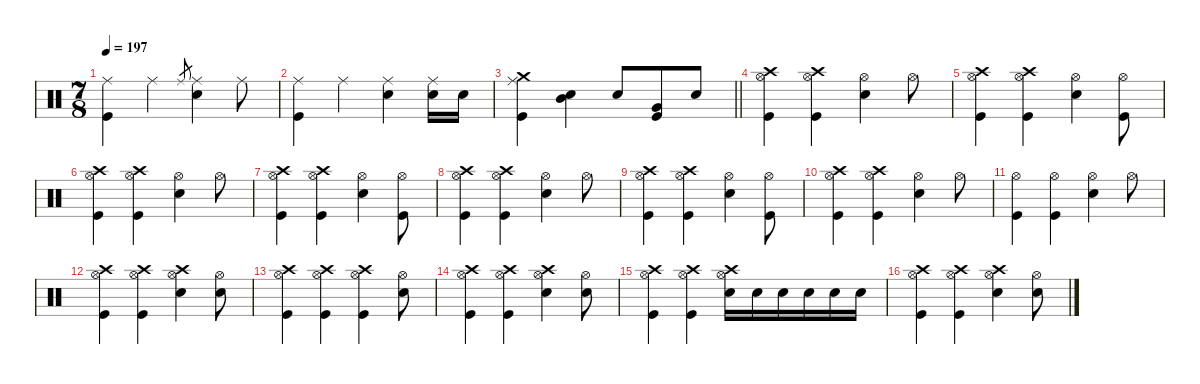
\defaultSystemsLayout 4
\hideDynamics
\bracketExtendMode nobrackets
\singleTrackTrackNamePolicy hidden
\multiTrackTrackNamePolicy hidden
\firstSystemTrackNameMode fullname
\firstSystemTrackNameOrientation horizontal
\otherSystemsTrackNameOrientation horizontal
\track ("Drums" "drm.") {defaultSystemsLayout 4 instrument percussion}
\staff {score}
\articulation defaults
\ts (7 8)
\tempo 197
\clef neutral
\ks c
("Ride (middle)" "Kick (hit)").4{dy f beam Down} "Ride (middle)".4{beam Down} "Ride (middle)".8{gr dy mf beam Up} ("Ride (middle)" "Snare (hit) 2").4{dy f beam Down} "Ride (middle)".8{beam Down} |
("Ride (middle)" "Kick (hit)").4{beam Down} "Ride (middle)".4{beam Down} ("Ride (middle)" "Snare (hit) 2").4{beam Down} ("Ride (middle)" "Snare (hit) 2").16{beam Down} "Snare (hit) 2".16{dy mf beam Down} |
\barLineRight lightlight
("Crash medium (hit)" "Ride (middle)" "Kick (hit)").4{dy mp beam Down} ("Snare (hit) 2" "Mid Tom (hit)").4{dy f beam Down} "Snare (hit) 2".8{beam Up} ("Kick (hit)" "Very Low Tom (hit)").8{beam Up} "Snare (hit) 2".8{beam Up} |
("Hi-Hat (open)" "Crash high (hit)" "Kick (hit)").4{beam Down} ("Hi-Hat (open)" "Crash high (hit)" "Kick (hit)").4{beam Down} ("Hi-Hat (open)" "Snare (hit) 2").4{beam Down} "Hi-Hat (open)".8{beam Down} |
("Hi-Hat (open)" "Crash high (hit)" "Kick (hit)").4{beam Down} ("Hi-Hat (open)" "Crash high (hit)" "Kick (hit)").4{beam Down} ("Hi-Hat (open)" "Snare (hit) 2").4{beam Down} ("Hi-Hat (open)" "Kick (hit)").8{beam Down} |
("Hi-Hat (open)" "Crash high (hit)" "Kick (hit)").4{beam Down} ("Hi-Hat (open)" "Crash high (hit)" "Kick (hit)").4{beam Down} ("Hi-Hat (open)" "Snare (hit) 2").4{beam Down} "Hi-Hat (open)".8{beam Down} |
("Hi-Hat (open)" "Crash high (hit)" "Kick (hit)").4{beam Down} ("Hi-Hat (open)" "Crash high (hit)" "Kick (hit)").4{beam Down} ("Hi-Hat (open)" "Snare (hit) 2").4{beam Down} ("Hi-Hat (open)" "Kick (hit)").8{beam Down} |
("Hi-Hat (open)" "Crash high (hit)" "Kick (hit)").4{beam Down} ("Hi-Hat (open)" "Crash high (hit)" "Kick (hit)").4{beam Down} ("Hi-Hat (open)" "Snare (hit) 2").4{beam Down} "Hi-Hat (open)".8{beam Down} |
("Hi-Hat (open)" "Crash high (hit)" "Kick (hit)").4{beam Down} ("Hi-Hat (open)" "Crash high (hit)" "Kick (hit)").4{beam Down} ("Hi-Hat (open)" "Snare (hit) 2").4{beam Down} ("Hi-Hat (open)" "Kick (hit)").8{beam Down} |
("Hi-Hat (open)" "Crash high (hit)" "Kick (hit)").4{beam Down} ("Hi-Hat (open)" "Crash high (hit)" "Kick (hit)").4{beam Down} ("Hi-Hat (open)" "Snare (hit) 2").4{beam Down} "Hi-Hat (open)".8{beam Down} |
("Hi-Hat (open)" "Kick (hit)").4{beam Down} ("Hi-Hat (open)" "Kick (hit)").4{beam Down} ("Hi-Hat (open)" "Snare (hit) 2").4{beam Down} "Hi-Hat (open)".8{beam Down} |
("Crash high (hit)" "Hi-Hat (open)" "Kick (hit)").4{beam Down} ("Crash high (hit)" "Hi-Hat (open)" "Kick (hit)").4{beam Down} ("Crash high (hit)" "Hi-Hat (open)" "Snare (hit) 2").4{beam Down} ("Hi-Hat (open)" "Snare (hit) 2").8{beam Down} |
("Crash high (hit)" "Hi-Hat (open)" "Kick (hit)").4{beam Down} ("Crash high (hit)" "Hi-Hat (open)" "Kick (hit)").4{beam Down} ("Crash high (hit)" "Hi-Hat (open)" "Kick (hit)").4{beam Down} ("Hi-Hat (open)" "Snare (hit) 2").8{beam Down} |
("Crash high (hit)" "Hi-Hat (open)" "Kick (hit)").4{beam Down} ("Crash high (hit)" "Hi-Hat (open)" "Kick (hit)").4{beam Down} ("Crash high (hit)" "Hi-Hat (open)" "Snare (hit) 2").4{beam Down} ("Hi-Hat (open)" "Snare (hit) 2").8{beam Down} |
("Crash high (hit)" "Hi-Hat (open)" "Kick (hit)").4{beam Down} ("Crash high (hit)" "Hi-Hat (open)" "Kick (hit)").4{beam Down} ("Crash high (hit)" "Hi-Hat (open)" "Snare (hit) 2").16{beam Down} "Snare (hit) 2".16{beam Down} "Snare (hit) 2".16{beam Down} "Snare (hit) 2".16{beam Down} "Snare (hit) 2".16{beam Down} "Snare (hit) 2".16{beam Down} |
("Crash high (hit)" "Hi-Hat (open)" "Kick (hit)").4{beam Down} ("Crash high (hit)" "Hi-Hat (open)" "Kick (hit)").4{beam Down} ("Crash high (hit)" "Hi-Hat (open)" "Snare (hit) 2").4{beam Down} ("Hi-Hat (open)" "Snare (hit) 2").8{beam Down}
